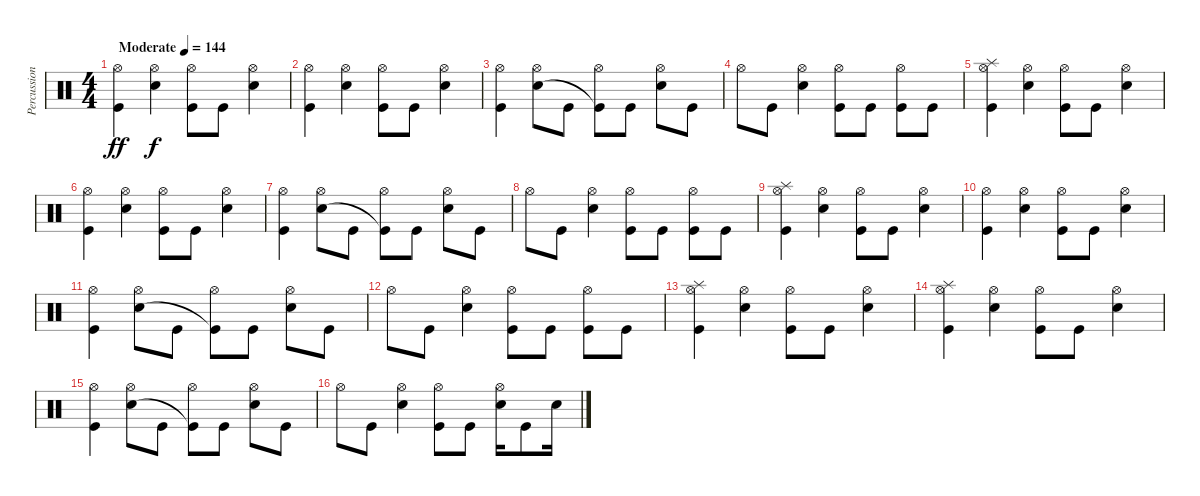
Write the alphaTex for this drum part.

\track ("Percussion" "Percussion") {instrument percussion}
\staff {score}
\articulation defaults
\ts (4 4)
\tempo (144 "Moderate")
\clef neutral
\ks c
("Hi-Hat (open)" "Kick (hit)").4{dy ff} ("Hi-Hat (open)" "Snare (hit) 2").4{dy f} ("Hi-Hat (open)" "Kick (hit)").8 "Kick (hit)".8 ("Hi-Hat (open)" "Snare (hit) 2").4 |
("Hi-Hat (open)" "Kick (hit)").4 ("Hi-Hat (open)" "Snare (hit) 2").4 ("Hi-Hat (open)" "Kick (hit)").8 "Kick (hit)".8 ("Hi-Hat (open)" "Snare (hit) 2").4 |
("Hi-Hat (open)" "Kick (hit)").4 ("Hi-Hat (open)" "Snare (hit) 2").8 "Kick (hit)".8 ("Hi-Hat (open)" "Kick (hit)"{t}).8 "Kick (hit)".8 ("Hi-Hat (open)" "Snare (hit) 2").8 "Kick (hit)".8 |
"Hi-Hat (open)".8 "Kick (hit)".8 ("Hi-Hat (open)" "Snare (hit) 2").4 ("Hi-Hat (open)" "Kick (hit)").8 "Kick (hit)".8 ("Hi-Hat (open)" "Kick (hit)").8 "Kick (hit)".8 |
("Hi-Hat (open)" "Splash (hit)" "Kick (hit)").4 ("Hi-Hat (open)" "Snare (hit) 2").4 ("Hi-Hat (open)" "Kick (hit)").8 "Kick (hit)".8 ("Hi-Hat (open)" "Snare (hit) 2").4 |
("Hi-Hat (open)" "Kick (hit)").4 ("Hi-Hat (open)" "Snare (hit) 2").4 ("Hi-Hat (open)" "Kick (hit)").8 "Kick (hit)".8 ("Hi-Hat (open)" "Snare (hit) 2").4 |
("Hi-Hat (open)" "Kick (hit)").4 ("Hi-Hat (open)" "Snare (hit) 2").8 "Kick (hit)".8 ("Hi-Hat (open)" "Kick (hit)"{t}).8 "Kick (hit)".8 ("Hi-Hat (open)" "Snare (hit) 2").8 "Kick (hit)".8 |
"Hi-Hat (open)".8 "Kick (hit)".8 ("Hi-Hat (open)" "Snare (hit) 2").4 ("Hi-Hat (open)" "Kick (hit)").8 "Kick (hit)".8 ("Hi-Hat (open)" "Kick (hit)").8 "Kick (hit)".8 |
("Hi-Hat (open)" "Splash (hit)" "Kick (hit)").4 ("Hi-Hat (open)" "Snare (hit) 2").4 ("Hi-Hat (open)" "Kick (hit)").8 "Kick (hit)".8 ("Hi-Hat (open)" "Snare (hit) 2").4 |
("Hi-Hat (open)" "Kick (hit)").4 ("Hi-Hat (open)" "Snare (hit) 2").4 ("Hi-Hat (open)" "Kick (hit)").8 "Kick (hit)".8 ("Hi-Hat (open)" "Snare (hit) 2").4 |
("Hi-Hat (open)" "Kick (hit)").4 ("Hi-Hat (open)" "Snare (hit) 2").8 "Kick (hit)".8 ("Hi-Hat (open)" "Kick (hit)"{t}).8 "Kick (hit)".8 ("Hi-Hat (open)" "Snare (hit) 2").8 "Kick (hit)".8 |
"Hi-Hat (open)".8 "Kick (hit)".8 ("Hi-Hat (open)" "Snare (hit) 2").4 ("Hi-Hat (open)" "Kick (hit)").8 "Kick (hit)".8 ("Hi-Hat (open)" "Kick (hit)").8 "Kick (hit)".8 |
("Hi-Hat (open)" "Splash (hit)" "Kick (hit)").4 ("Hi-Hat (open)" "Snare (hit) 2").4 ("Hi-Hat (open)" "Kick (hit)").8 "Kick (hit)".8 ("Hi-Hat (open)" "Snare (hit) 2").4 |
("Hi-Hat (open)" "Splash (hit)" "Kick (hit)").4 ("Hi-Hat (open)" "Snare (hit) 2").4 ("Hi-Hat (open)" "Kick (hit)").8 "Kick (hit)".8 ("Hi-Hat (open)" "Snare (hit) 2").4 |
("Hi-Hat (open)" "Kick (hit)").4 ("Hi-Hat (open)" "Snare (hit) 2").8 "Kick (hit)".8 ("Hi-Hat (open)" "Kick (hit)"{t}).8 "Kick (hit)".8 ("Hi-Hat (open)" "Snare (hit) 2").8 "Kick (hit)".8 |
"Hi-Hat (open)".8 "Kick (hit)".8 ("Hi-Hat (open)" "Snare (hit) 2").4 ("Hi-Hat (open)" "Kick (hit)").8 "Kick (hit)".8 ("Hi-Hat (open)" "Snare (hit) 2").16 "Kick (hit)".8 "Snare (hit) 2".16
